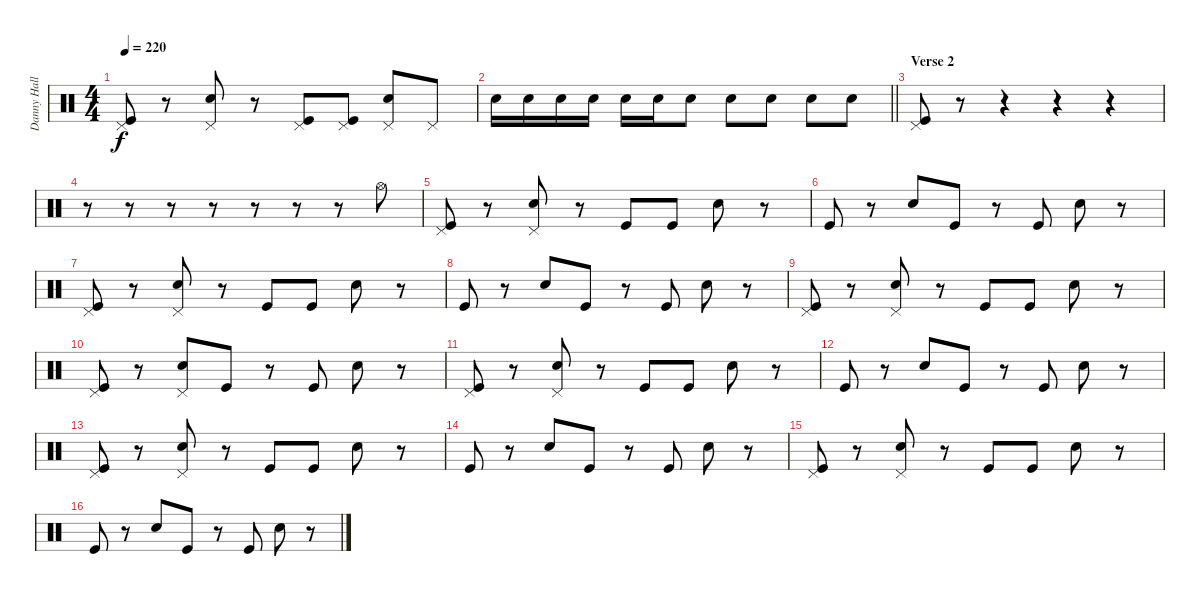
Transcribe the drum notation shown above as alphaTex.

\track ("Danny Hall" "Danny Hall") {instrument percussion}
\staff {score}
\articulation defaults
\ts (4 4)
\tempo 220
\clef neutral
\ks c
("Pedal Hi-Hat (hit)" "Kick (hit)").8{dy f} r.8 ("Pedal Hi-Hat (hit)" "Snare (hit) 2").8 r.8 ("Pedal Hi-Hat (hit)" "Kick (hit)").8 ("Pedal Hi-Hat (hit)" "Kick (hit)").8 ("Pedal Hi-Hat (hit)" "Snare (hit) 2").8 "Pedal Hi-Hat (hit)".8 |
\barLineRight lightlight "Snare (hit) 2".16 "Snare (hit) 2".16 "Snare (hit) 2".16 "Snare (hit) 2".16 "Snare (hit) 2".16 "Snare (hit) 2".16 "Snare (hit) 2".8 "Snare (hit) 2".8 "Snare (hit) 2".8 "Snare (hit) 2".8 "Snare (hit) 2".8
|
\section ("" "Verse 2")
("Pedal Hi-Hat (hit)" "Kick (hit)").8 r.8 r.4 r.4 r.4 |
r.8 r.8 r.8 r.8 r.8 r.8 r.8 "Hi-Hat (open)".8 |
("Pedal Hi-Hat (hit)" "Kick (hit)").8 r.8 ("Pedal Hi-Hat (hit)" "Snare (hit) 2").8 r.8 "Kick (hit)".8 "Kick (hit)".8 "Snare (hit) 2".8 r.8 |
"Kick (hit)".8 r.8 "Snare (hit) 2".8 "Kick (hit)".8 r.8 "Kick (hit)".8 "Snare (hit) 2".8 r.8 |
("Pedal Hi-Hat (hit)" "Kick (hit)").8 r.8 ("Pedal Hi-Hat (hit)" "Snare (hit) 2").8 r.8 "Kick (hit)".8 "Kick (hit)".8 "Snare (hit) 2".8 r.8 |
"Kick (hit)".8 r.8 "Snare (hit) 2".8 "Kick (hit)".8 r.8 "Kick (hit)".8 "Snare (hit) 2".8 r.8 |
("Pedal Hi-Hat (hit)" "Kick (hit)").8 r.8 ("Pedal Hi-Hat (hit)" "Snare (hit) 2").8 r.8 "Kick (hit)".8 "Kick (hit)".8 "Snare (hit) 2".8 r.8 |
("Pedal Hi-Hat (hit)" "Kick (hit)").8 r.8 ("Pedal Hi-Hat (hit)" "Snare (hit) 2").8 "Kick (hit)".8 r.8 "Kick (hit)".8 "Snare (hit) 2".8 r.8 |
("Pedal Hi-Hat (hit)" "Kick (hit)").8 r.8 ("Pedal Hi-Hat (hit)" "Snare (hit) 2").8 r.8 "Kick (hit)".8 "Kick (hit)".8 "Snare (hit) 2".8 r.8 |
"Kick (hit)".8 r.8 "Snare (hit) 2".8 "Kick (hit)".8 r.8 "Kick (hit)".8 "Snare (hit) 2".8 r.8 |
("Pedal Hi-Hat (hit)" "Kick (hit)").8 r.8 ("Pedal Hi-Hat (hit)" "Snare (hit) 2").8 r.8 "Kick (hit)".8 "Kick (hit)".8 "Snare (hit) 2".8 r.8 |
"Kick (hit)".8 r.8 "Snare (hit) 2".8 "Kick (hit)".8 r.8 "Kick (hit)".8 "Snare (hit) 2".8 r.8 |
("Pedal Hi-Hat (hit)" "Kick (hit)").8 r.8 ("Pedal Hi-Hat (hit)" "Snare (hit) 2").8 r.8 "Kick (hit)".8 "Kick (hit)".8 "Snare (hit) 2".8 r.8 |
"Kick (hit)".8 r.8 "Snare (hit) 2".8 "Kick (hit)".8 r.8 "Kick (hit)".8 "Snare (hit) 2".8 r.8
